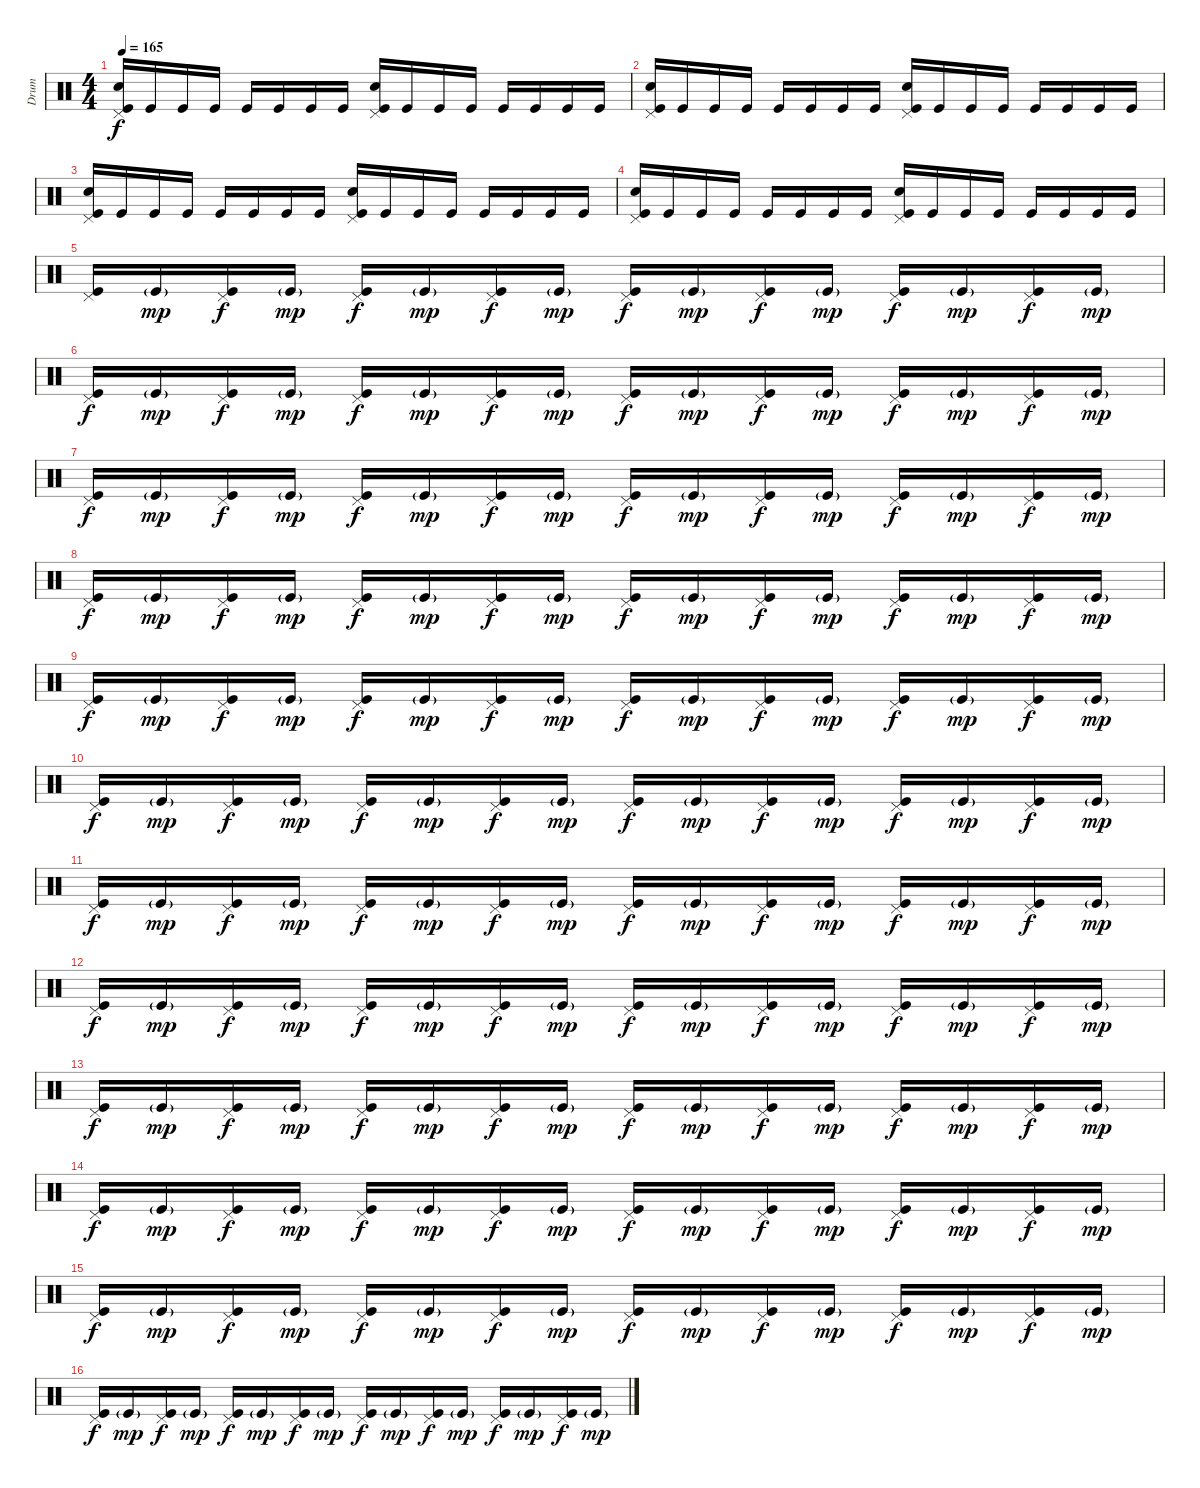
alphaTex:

\track ("Drum" "Drum") {instrument percussion}
\staff {score}
\articulation defaults
\ts (4 4)
\tempo 165
\clef neutral
\ks c
("Pedal Hi-Hat (hit)" "Electric Snare (hit)" "Kick (hit)").16{dy f} "Kick (hit)".16 "Kick (hit)".16 "Kick (hit)".16 "Kick (hit)".16 "Kick (hit)".16 "Kick (hit)".16 "Kick (hit)".16 ("Pedal Hi-Hat (hit)" "Electric Snare (hit)" "Kick (hit)").16 "Kick (hit)".16 "Kick (hit)".16 "Kick (hit)".16 "Kick (hit)".16 "Kick (hit)".16 "Kick (hit)".16 "Kick (hit)".16 |
("Pedal Hi-Hat (hit)" "Electric Snare (hit)" "Kick (hit)").16 "Kick (hit)".16 "Kick (hit)".16 "Kick (hit)".16 "Kick (hit)".16 "Kick (hit)".16 "Kick (hit)".16 "Kick (hit)".16 ("Pedal Hi-Hat (hit)" "Electric Snare (hit)" "Kick (hit)").16 "Kick (hit)".16 "Kick (hit)".16 "Kick (hit)".16 "Kick (hit)".16 "Kick (hit)".16 "Kick (hit)".16 "Kick (hit)".16 |
("Pedal Hi-Hat (hit)" "Electric Snare (hit)" "Kick (hit)").16 "Kick (hit)".16 "Kick (hit)".16 "Kick (hit)".16 "Kick (hit)".16 "Kick (hit)".16 "Kick (hit)".16 "Kick (hit)".16 ("Pedal Hi-Hat (hit)" "Electric Snare (hit)" "Kick (hit)").16 "Kick (hit)".16 "Kick (hit)".16 "Kick (hit)".16 "Kick (hit)".16 "Kick (hit)".16 "Kick (hit)".16 "Kick (hit)".16 |
("Pedal Hi-Hat (hit)" "Electric Snare (hit)" "Kick (hit)").16 "Kick (hit)".16 "Kick (hit)".16 "Kick (hit)".16 "Kick (hit)".16 "Kick (hit)".16 "Kick (hit)".16 "Kick (hit)".16 ("Pedal Hi-Hat (hit)" "Electric Snare (hit)" "Kick (hit)").16 "Kick (hit)".16 "Kick (hit)".16 "Kick (hit)".16 "Kick (hit)".16 "Kick (hit)".16 "Kick (hit)".16 "Kick (hit)".16 |
("Pedal Hi-Hat (hit)" "Kick (hit)").16 "Kick (hit)"{g}.16{dy mp} ("Pedal Hi-Hat (hit)" "Kick (hit)").16{dy f} "Kick (hit)"{g}.16{dy mp} ("Pedal Hi-Hat (hit)" "Kick (hit)").16{dy f} "Kick (hit)"{g}.16{dy mp} ("Pedal Hi-Hat (hit)" "Kick (hit)").16{dy f} "Kick (hit)"{g}.16{dy mp} ("Pedal Hi-Hat (hit)" "Kick (hit)").16{dy f} "Kick (hit)"{g}.16{dy mp} ("Pedal Hi-Hat (hit)" "Kick (hit)").16{dy f} "Kick (hit)"{g}.16{dy mp} ("Pedal Hi-Hat (hit)" "Kick (hit)").16{dy f} "Kick (hit)"{g}.16{dy mp} ("Pedal Hi-Hat (hit)" "Kick (hit)").16{dy f} "Kick (hit)"{g}.16{dy mp} |
("Pedal Hi-Hat (hit)" "Kick (hit)").16{dy f} "Kick (hit)"{g}.16{dy mp} ("Pedal Hi-Hat (hit)" "Kick (hit)").16{dy f} "Kick (hit)"{g}.16{dy mp} ("Pedal Hi-Hat (hit)" "Kick (hit)").16{dy f} "Kick (hit)"{g}.16{dy mp} ("Pedal Hi-Hat (hit)" "Kick (hit)").16{dy f} "Kick (hit)"{g}.16{dy mp} ("Pedal Hi-Hat (hit)" "Kick (hit)").16{dy f} "Kick (hit)"{g}.16{dy mp} ("Pedal Hi-Hat (hit)" "Kick (hit)").16{dy f} "Kick (hit)"{g}.16{dy mp} ("Pedal Hi-Hat (hit)" "Kick (hit)").16{dy f} "Kick (hit)"{g}.16{dy mp} ("Pedal Hi-Hat (hit)" "Kick (hit)").16{dy f} "Kick (hit)"{g}.16{dy mp} |
("Pedal Hi-Hat (hit)" "Kick (hit)").16{dy f} "Kick (hit)"{g}.16{dy mp} ("Pedal Hi-Hat (hit)" "Kick (hit)").16{dy f} "Kick (hit)"{g}.16{dy mp} ("Pedal Hi-Hat (hit)" "Kick (hit)").16{dy f} "Kick (hit)"{g}.16{dy mp} ("Pedal Hi-Hat (hit)" "Kick (hit)").16{dy f} "Kick (hit)"{g}.16{dy mp} ("Pedal Hi-Hat (hit)" "Kick (hit)").16{dy f} "Kick (hit)"{g}.16{dy mp} ("Pedal Hi-Hat (hit)" "Kick (hit)").16{dy f} "Kick (hit)"{g}.16{dy mp} ("Pedal Hi-Hat (hit)" "Kick (hit)").16{dy f} "Kick (hit)"{g}.16{dy mp} ("Pedal Hi-Hat (hit)" "Kick (hit)").16{dy f} "Kick (hit)"{g}.16{dy mp} |
("Pedal Hi-Hat (hit)" "Kick (hit)").16{dy f} "Kick (hit)"{g}.16{dy mp} ("Pedal Hi-Hat (hit)" "Kick (hit)").16{dy f} "Kick (hit)"{g}.16{dy mp} ("Pedal Hi-Hat (hit)" "Kick (hit)").16{dy f} "Kick (hit)"{g}.16{dy mp} ("Pedal Hi-Hat (hit)" "Kick (hit)").16{dy f} "Kick (hit)"{g}.16{dy mp} ("Pedal Hi-Hat (hit)" "Kick (hit)").16{dy f} "Kick (hit)"{g}.16{dy mp} ("Pedal Hi-Hat (hit)" "Kick (hit)").16{dy f} "Kick (hit)"{g}.16{dy mp} ("Pedal Hi-Hat (hit)" "Kick (hit)").16{dy f} "Kick (hit)"{g}.16{dy mp} ("Pedal Hi-Hat (hit)" "Kick (hit)").16{dy f} "Kick (hit)"{g}.16{dy mp} |
("Pedal Hi-Hat (hit)" "Kick (hit)").16{dy f} "Kick (hit)"{g}.16{dy mp} ("Pedal Hi-Hat (hit)" "Kick (hit)").16{dy f} "Kick (hit)"{g}.16{dy mp} ("Pedal Hi-Hat (hit)" "Kick (hit)").16{dy f} "Kick (hit)"{g}.16{dy mp} ("Pedal Hi-Hat (hit)" "Kick (hit)").16{dy f} "Kick (hit)"{g}.16{dy mp} ("Pedal Hi-Hat (hit)" "Kick (hit)").16{dy f} "Kick (hit)"{g}.16{dy mp} ("Pedal Hi-Hat (hit)" "Kick (hit)").16{dy f} "Kick (hit)"{g}.16{dy mp} ("Pedal Hi-Hat (hit)" "Kick (hit)").16{dy f} "Kick (hit)"{g}.16{dy mp} ("Pedal Hi-Hat (hit)" "Kick (hit)").16{dy f} "Kick (hit)"{g}.16{dy mp} |
("Pedal Hi-Hat (hit)" "Kick (hit)").16{dy f} "Kick (hit)"{g}.16{dy mp} ("Pedal Hi-Hat (hit)" "Kick (hit)").16{dy f} "Kick (hit)"{g}.16{dy mp} ("Pedal Hi-Hat (hit)" "Kick (hit)").16{dy f} "Kick (hit)"{g}.16{dy mp} ("Pedal Hi-Hat (hit)" "Kick (hit)").16{dy f} "Kick (hit)"{g}.16{dy mp} ("Pedal Hi-Hat (hit)" "Kick (hit)").16{dy f} "Kick (hit)"{g}.16{dy mp} ("Pedal Hi-Hat (hit)" "Kick (hit)").16{dy f} "Kick (hit)"{g}.16{dy mp} ("Pedal Hi-Hat (hit)" "Kick (hit)").16{dy f} "Kick (hit)"{g}.16{dy mp} ("Pedal Hi-Hat (hit)" "Kick (hit)").16{dy f} "Kick (hit)"{g}.16{dy mp} |
("Pedal Hi-Hat (hit)" "Kick (hit)").16{dy f} "Kick (hit)"{g}.16{dy mp} ("Pedal Hi-Hat (hit)" "Kick (hit)").16{dy f} "Kick (hit)"{g}.16{dy mp} ("Pedal Hi-Hat (hit)" "Kick (hit)").16{dy f} "Kick (hit)"{g}.16{dy mp} ("Pedal Hi-Hat (hit)" "Kick (hit)").16{dy f} "Kick (hit)"{g}.16{dy mp} ("Pedal Hi-Hat (hit)" "Kick (hit)").16{dy f} "Kick (hit)"{g}.16{dy mp} ("Pedal Hi-Hat (hit)" "Kick (hit)").16{dy f} "Kick (hit)"{g}.16{dy mp} ("Pedal Hi-Hat (hit)" "Kick (hit)").16{dy f} "Kick (hit)"{g}.16{dy mp} ("Pedal Hi-Hat (hit)" "Kick (hit)").16{dy f} "Kick (hit)"{g}.16{dy mp} |
("Pedal Hi-Hat (hit)" "Kick (hit)").16{dy f} "Kick (hit)"{g}.16{dy mp} ("Pedal Hi-Hat (hit)" "Kick (hit)").16{dy f} "Kick (hit)"{g}.16{dy mp} ("Pedal Hi-Hat (hit)" "Kick (hit)").16{dy f} "Kick (hit)"{g}.16{dy mp} ("Pedal Hi-Hat (hit)" "Kick (hit)").16{dy f} "Kick (hit)"{g}.16{dy mp} ("Pedal Hi-Hat (hit)" "Kick (hit)").16{dy f} "Kick (hit)"{g}.16{dy mp} ("Pedal Hi-Hat (hit)" "Kick (hit)").16{dy f} "Kick (hit)"{g}.16{dy mp} ("Pedal Hi-Hat (hit)" "Kick (hit)").16{dy f} "Kick (hit)"{g}.16{dy mp} ("Pedal Hi-Hat (hit)" "Kick (hit)").16{dy f} "Kick (hit)"{g}.16{dy mp} |
("Pedal Hi-Hat (hit)" "Kick (hit)").16{dy f} "Kick (hit)"{g}.16{dy mp} ("Pedal Hi-Hat (hit)" "Kick (hit)").16{dy f} "Kick (hit)"{g}.16{dy mp} ("Pedal Hi-Hat (hit)" "Kick (hit)").16{dy f} "Kick (hit)"{g}.16{dy mp} ("Pedal Hi-Hat (hit)" "Kick (hit)").16{dy f} "Kick (hit)"{g}.16{dy mp} ("Pedal Hi-Hat (hit)" "Kick (hit)").16{dy f} "Kick (hit)"{g}.16{dy mp} ("Pedal Hi-Hat (hit)" "Kick (hit)").16{dy f} "Kick (hit)"{g}.16{dy mp} ("Pedal Hi-Hat (hit)" "Kick (hit)").16{dy f} "Kick (hit)"{g}.16{dy mp} ("Pedal Hi-Hat (hit)" "Kick (hit)").16{dy f} "Kick (hit)"{g}.16{dy mp} |
("Pedal Hi-Hat (hit)" "Kick (hit)").16{dy f} "Kick (hit)"{g}.16{dy mp} ("Pedal Hi-Hat (hit)" "Kick (hit)").16{dy f} "Kick (hit)"{g}.16{dy mp} ("Pedal Hi-Hat (hit)" "Kick (hit)").16{dy f} "Kick (hit)"{g}.16{dy mp} ("Pedal Hi-Hat (hit)" "Kick (hit)").16{dy f} "Kick (hit)"{g}.16{dy mp} ("Pedal Hi-Hat (hit)" "Kick (hit)").16{dy f} "Kick (hit)"{g}.16{dy mp} ("Pedal Hi-Hat (hit)" "Kick (hit)").16{dy f} "Kick (hit)"{g}.16{dy mp} ("Pedal Hi-Hat (hit)" "Kick (hit)").16{dy f} "Kick (hit)"{g}.16{dy mp} ("Pedal Hi-Hat (hit)" "Kick (hit)").16{dy f} "Kick (hit)"{g}.16{dy mp} |
("Pedal Hi-Hat (hit)" "Kick (hit)").16{dy f} "Kick (hit)"{g}.16{dy mp} ("Pedal Hi-Hat (hit)" "Kick (hit)").16{dy f} "Kick (hit)"{g}.16{dy mp} ("Pedal Hi-Hat (hit)" "Kick (hit)").16{dy f} "Kick (hit)"{g}.16{dy mp} ("Pedal Hi-Hat (hit)" "Kick (hit)").16{dy f} "Kick (hit)"{g}.16{dy mp} ("Pedal Hi-Hat (hit)" "Kick (hit)").16{dy f} "Kick (hit)"{g}.16{dy mp} ("Pedal Hi-Hat (hit)" "Kick (hit)").16{dy f} "Kick (hit)"{g}.16{dy mp} ("Pedal Hi-Hat (hit)" "Kick (hit)").16{dy f} "Kick (hit)"{g}.16{dy mp} ("Pedal Hi-Hat (hit)" "Kick (hit)").16{dy f} "Kick (hit)"{g}.16{dy mp} |
("Pedal Hi-Hat (hit)" "Kick (hit)").16{dy f} "Kick (hit)"{g}.16{dy mp} ("Pedal Hi-Hat (hit)" "Kick (hit)").16{dy f} "Kick (hit)"{g}.16{dy mp} ("Pedal Hi-Hat (hit)" "Kick (hit)").16{dy f} "Kick (hit)"{g}.16{dy mp} ("Pedal Hi-Hat (hit)" "Kick (hit)").16{dy f} "Kick (hit)"{g}.16{dy mp} ("Pedal Hi-Hat (hit)" "Kick (hit)").16{dy f} "Kick (hit)"{g}.16{dy mp} ("Pedal Hi-Hat (hit)" "Kick (hit)").16{dy f} "Kick (hit)"{g}.16{dy mp} ("Pedal Hi-Hat (hit)" "Kick (hit)").16{dy f} "Kick (hit)"{g}.16{dy mp} ("Pedal Hi-Hat (hit)" "Kick (hit)").16{dy f} "Kick (hit)"{g}.16{dy mp}
